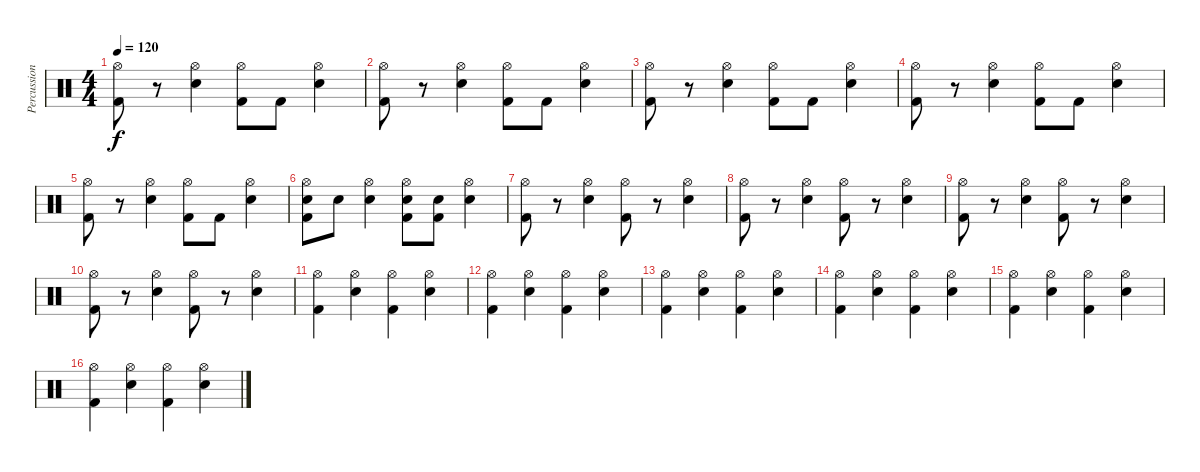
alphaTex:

\track ("Percussion" "Percussion") {instrument percussion}
\staff {score}
\articulation defaults
\ts (4 4)
\tempo 120
\clef neutral
\ks c
("Hi-Hat (open)" "Kick (hit) 2").8{dy f} r.8 ("Hi-Hat (open)" "Snare (hit) 2").4 ("Hi-Hat (open)" "Kick (hit) 2").8 "Kick (hit) 2".8 ("Hi-Hat (open)" "Snare (hit) 2").4 |
("Hi-Hat (open)" "Kick (hit) 2").8 r.8 ("Hi-Hat (open)" "Snare (hit) 2").4 ("Hi-Hat (open)" "Kick (hit) 2").8 "Kick (hit) 2".8 ("Hi-Hat (open)" "Snare (hit) 2").4 |
("Hi-Hat (open)" "Kick (hit) 2").8 r.8 ("Hi-Hat (open)" "Snare (hit) 2").4 ("Hi-Hat (open)" "Kick (hit) 2").8 "Kick (hit) 2".8 ("Hi-Hat (open)" "Snare (hit) 2").4 |
("Hi-Hat (open)" "Kick (hit) 2").8 r.8 ("Hi-Hat (open)" "Snare (hit) 2").4 ("Hi-Hat (open)" "Kick (hit) 2").8 "Kick (hit) 2".8 ("Hi-Hat (open)" "Snare (hit) 2").4 |
("Hi-Hat (open)" "Kick (hit) 2").8 r.8 ("Hi-Hat (open)" "Snare (hit) 2").4 ("Hi-Hat (open)" "Kick (hit) 2").8 "Kick (hit) 2".8 ("Hi-Hat (open)" "Snare (hit) 2").4 |
("Hi-Hat (open)" "Snare (hit) 2" "Kick (hit) 2").8 "Snare (hit) 2".8 ("Hi-Hat (open)" "Snare (hit) 2").4 ("Hi-Hat (open)" "Snare (hit) 2" "Kick (hit) 2").8 ("Snare (hit) 2" "Kick (hit) 2").8 ("Hi-Hat (open)" "Snare (hit) 2").4 |
("Hi-Hat (open)" "Kick (hit) 2").8 r.8 ("Hi-Hat (open)" "Snare (hit) 2").4 ("Hi-Hat (open)" "Kick (hit) 2").8 r.8 ("Hi-Hat (open)" "Snare (hit) 2").4 |
("Hi-Hat (open)" "Kick (hit) 2").8 r.8 ("Hi-Hat (open)" "Snare (hit) 2").4 ("Hi-Hat (open)" "Kick (hit) 2").8 r.8 ("Hi-Hat (open)" "Snare (hit) 2").4 |
("Hi-Hat (open)" "Kick (hit) 2").8 r.8 ("Hi-Hat (open)" "Snare (hit) 2").4 ("Hi-Hat (open)" "Kick (hit) 2").8 r.8 ("Hi-Hat (open)" "Snare (hit) 2").4 |
("Hi-Hat (open)" "Kick (hit) 2").8 r.8 ("Hi-Hat (open)" "Snare (hit) 2").4 ("Hi-Hat (open)" "Kick (hit) 2").8 r.8 ("Hi-Hat (open)" "Snare (hit) 2").4 |
("Hi-Hat (open)" "Kick (hit) 2").4 ("Snare (hit) 2" "Hi-Hat (open)").4 ("Hi-Hat (open)" "Kick (hit) 2").4 ("Snare (hit) 2" "Hi-Hat (open)").4 |
("Hi-Hat (open)" "Kick (hit) 2").4 ("Snare (hit) 2" "Hi-Hat (open)").4 ("Hi-Hat (open)" "Kick (hit) 2").4 ("Snare (hit) 2" "Hi-Hat (open)").4 |
("Hi-Hat (open)" "Kick (hit) 2").4 ("Snare (hit) 2" "Hi-Hat (open)").4 ("Hi-Hat (open)" "Kick (hit) 2").4 ("Snare (hit) 2" "Hi-Hat (open)").4 |
("Hi-Hat (open)" "Kick (hit) 2").4 ("Snare (hit) 2" "Hi-Hat (open)").4 ("Hi-Hat (open)" "Kick (hit) 2").4 ("Snare (hit) 2" "Hi-Hat (open)").4 |
("Hi-Hat (open)" "Kick (hit) 2").4 ("Snare (hit) 2" "Hi-Hat (open)").4 ("Hi-Hat (open)" "Kick (hit) 2").4 ("Snare (hit) 2" "Hi-Hat (open)").4 |
("Hi-Hat (open)" "Kick (hit) 2").4 ("Snare (hit) 2" "Hi-Hat (open)").4 ("Hi-Hat (open)" "Kick (hit) 2").4 ("Snare (hit) 2" "Hi-Hat (open)").4
